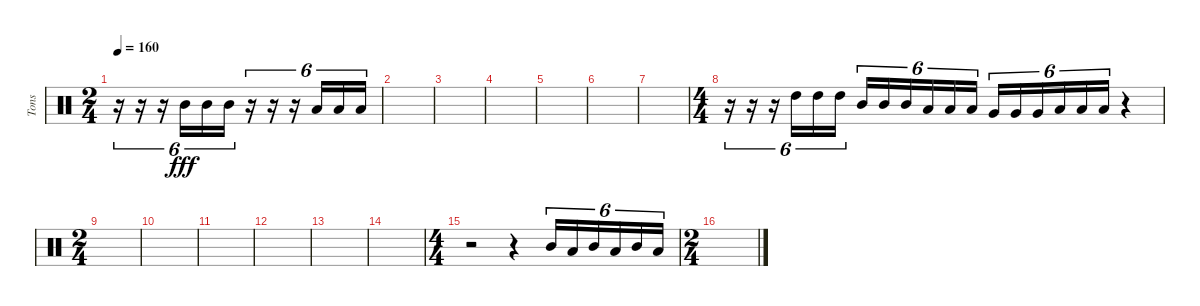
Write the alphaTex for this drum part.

\track ("Tons" "Tons") {instrument percussion}
\staff {score}
\articulation defaults
\ts (2 4)
\tempo 160
\clef neutral
\ks c
r.16{tu (6 4) dy f} r.16{tu (6 4)} r.16{tu (6 4)} "Mid Tom (hit)".16{tu (6 4) dy fff} "Mid Tom (hit)".16{tu (6 4)} "Mid Tom (hit)".16{tu (6 4)} r.16{tu (6 4)} r.16{tu (6 4)} r.16{tu (6 4)} "Low Tom (hit)".16{tu (6 4)} "Low Tom (hit)".16{tu (6 4)} "Low Tom (hit)".16{tu (6 4)} |
|
|
|
|
|
|
\ts (4 4)
r.16{tu (6 4)} r.16{tu (6 4)} r.16{tu (6 4)} "High Tom (hit)".16{tu (6 4)} "High Tom (hit)".16{tu (6 4)} "High Tom (hit)".16{tu (6 4)} "Mid Tom (hit)".16{tu (6 4)} "Mid Tom (hit)".16{tu (6 4)} "Mid Tom (hit)".16{tu (6 4)} "Low Tom (hit)".16{tu (6 4)} "Low Tom (hit)".16{tu (6 4)} "Low Tom (hit)".16{tu (6 4)} "Very Low Tom (hit)".16{tu (6 4)} "Very Low Tom (hit)".16{tu (6 4)} "Very Low Tom (hit)".16{tu (6 4)} "Low Floor Tom (hit)".16{tu (6 4)} "Low Floor Tom (hit)".16{tu (6 4)} "Low Floor Tom (hit)".16{tu (6 4)} r.4 |
\ts (2 4)
|
|
|
|
|
|
\ts (4 4)
r.2 r.4 "Mid Tom (hit)".16{tu (6 4)} "Low Tom (hit)".16{tu (6 4)} "Mid Tom (hit)".16{tu (6 4)} "Low Tom (hit)".16{tu (6 4)} "Mid Tom (hit)".16{tu (6 4)} "Low Tom (hit)".16{tu (6 4)} |
\ts (2 4)
